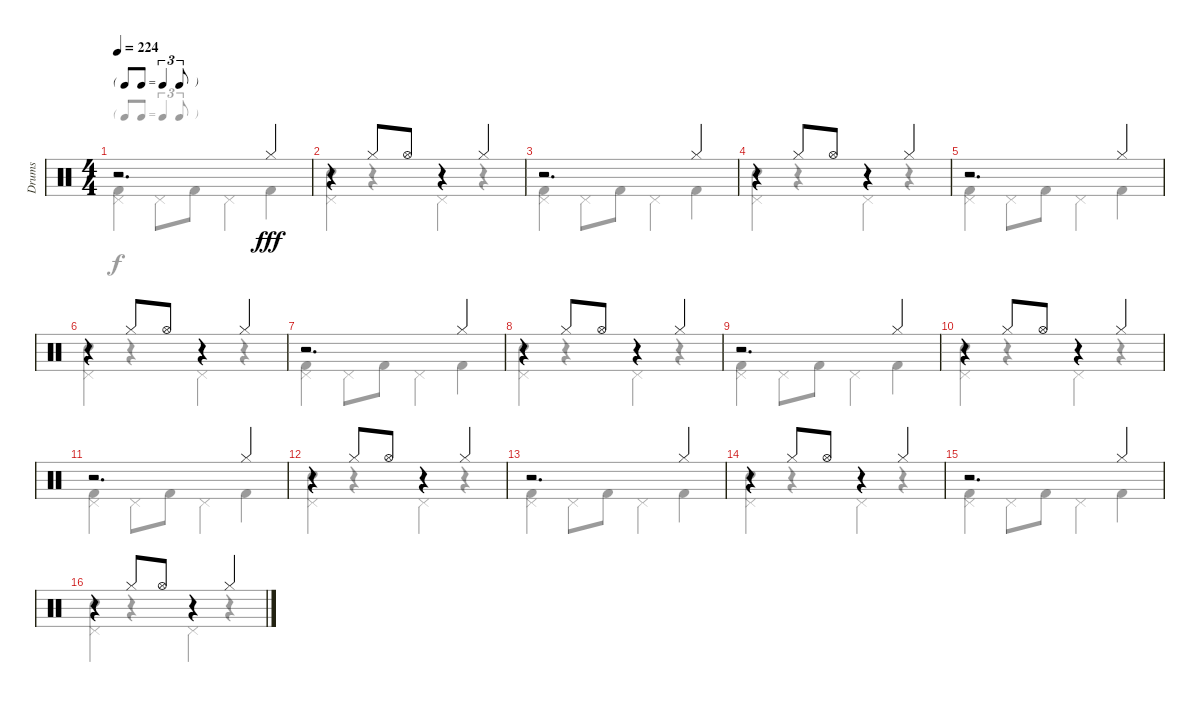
\track ("Drums" "Drums") {instrument percussion}
\staff {score}
\articulation defaults
\voice
\ts (4 4)
\tf triplet8th
\tempo 224
\clef neutral
\ks c
r.2{d dy fff} "Hi-Hat (closed)".4 |
r.4 "Hi-Hat (closed)".8 "Hi-Hat (open)".8 r.4 "Hi-Hat (closed)".4 |
r.2{d} "Hi-Hat (closed)".4 |
r.4 "Hi-Hat (closed)".8 "Hi-Hat (open)".8 r.4 "Hi-Hat (closed)".4 |
r.2{d} "Hi-Hat (closed)".4 |
r.4 "Hi-Hat (closed)".8 "Hi-Hat (open)".8 r.4 "Hi-Hat (closed)".4 |
r.2{d} "Hi-Hat (closed)".4 |
r.4 "Hi-Hat (closed)".8 "Hi-Hat (open)".8 r.4 "Hi-Hat (closed)".4 |
r.2{d} "Hi-Hat (closed)".4 |
r.4 "Hi-Hat (closed)".8 "Hi-Hat (open)".8 r.4 "Hi-Hat (closed)".4 |
r.2{d} "Hi-Hat (closed)".4 |
r.4 "Hi-Hat (closed)".8 "Hi-Hat (open)".8 r.4 "Hi-Hat (closed)".4 |
r.2{d} "Hi-Hat (closed)".4 |
r.4 "Hi-Hat (closed)".8 "Hi-Hat (open)".8 r.4 "Hi-Hat (closed)".4 |
r.2{d} "Hi-Hat (closed)".4 |
r.4 "Hi-Hat (closed)".8 "Hi-Hat (open)".8 r.4 "Hi-Hat (closed)".4
\voice
\clef neutral
\ottava regular
\simile none
\ks c
("Pedal Hi-Hat (hit)" "Kick (hit) 2").4{dy f} "Pedal Hi-Hat (hit)".8 "Kick (hit) 2".8 "Pedal Hi-Hat (hit)".4 "Kick (hit) 2".4 |
("Electric Snare (hit)" "Pedal Hi-Hat (hit)").4 r.4 "Pedal Hi-Hat (hit)".4 r.4 |
("Pedal Hi-Hat (hit)" "Kick (hit) 2").4 "Pedal Hi-Hat (hit)".8 "Kick (hit) 2".8 "Pedal Hi-Hat (hit)".4 "Kick (hit) 2".4 |
("Electric Snare (hit)" "Pedal Hi-Hat (hit)").4 r.4 "Pedal Hi-Hat (hit)".4 r.4 |
("Pedal Hi-Hat (hit)" "Kick (hit) 2").4 "Pedal Hi-Hat (hit)".8 "Kick (hit) 2".8 "Pedal Hi-Hat (hit)".4 "Kick (hit) 2".4 |
("Electric Snare (hit)" "Pedal Hi-Hat (hit)").4 r.4 "Pedal Hi-Hat (hit)".4 r.4 |
("Pedal Hi-Hat (hit)" "Kick (hit) 2").4 "Pedal Hi-Hat (hit)".8 "Kick (hit) 2".8 "Pedal Hi-Hat (hit)".4 "Kick (hit) 2".4 |
("Electric Snare (hit)" "Pedal Hi-Hat (hit)").4 r.4 "Pedal Hi-Hat (hit)".4 r.4 |
("Pedal Hi-Hat (hit)" "Kick (hit) 2").4 "Pedal Hi-Hat (hit)".8 "Kick (hit) 2".8 "Pedal Hi-Hat (hit)".4 "Kick (hit) 2".4 |
("Electric Snare (hit)" "Pedal Hi-Hat (hit)").4 r.4 "Pedal Hi-Hat (hit)".4 r.4 |
("Pedal Hi-Hat (hit)" "Kick (hit) 2").4 "Pedal Hi-Hat (hit)".8 "Kick (hit) 2".8 "Pedal Hi-Hat (hit)".4 "Kick (hit) 2".4 |
("Electric Snare (hit)" "Pedal Hi-Hat (hit)").4 r.4 "Pedal Hi-Hat (hit)".4 r.4 |
("Pedal Hi-Hat (hit)" "Kick (hit) 2").4 "Pedal Hi-Hat (hit)".8 "Kick (hit) 2".8 "Pedal Hi-Hat (hit)".4 "Kick (hit) 2".4 |
("Electric Snare (hit)" "Pedal Hi-Hat (hit)").4 r.4 "Pedal Hi-Hat (hit)".4 r.4 |
("Pedal Hi-Hat (hit)" "Kick (hit) 2").4 "Pedal Hi-Hat (hit)".8 "Kick (hit) 2".8 "Pedal Hi-Hat (hit)".4 "Kick (hit) 2".4 |
("Electric Snare (hit)" "Pedal Hi-Hat (hit)").4 r.4 "Pedal Hi-Hat (hit)".4 r.4
